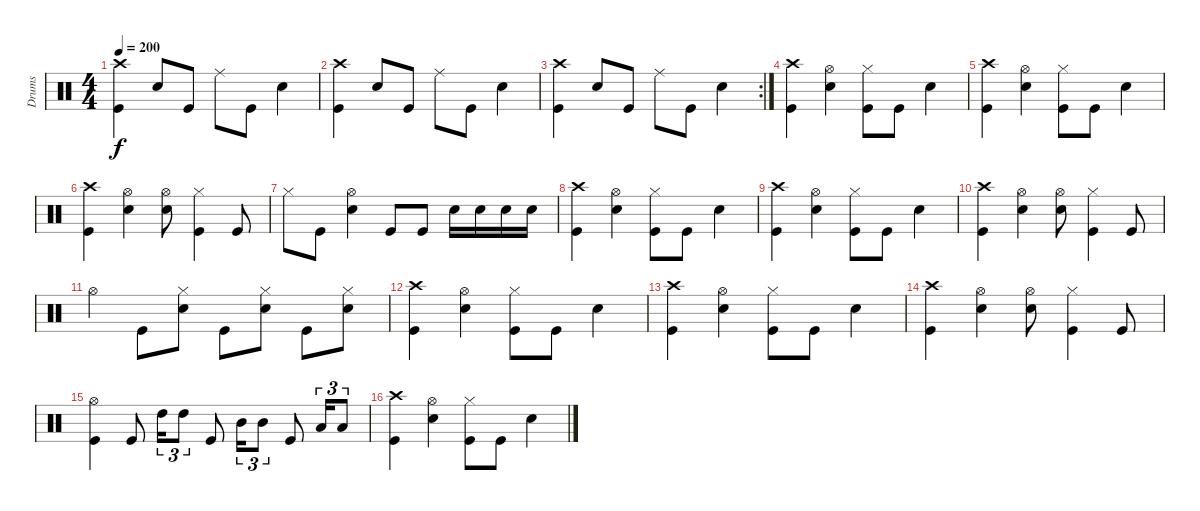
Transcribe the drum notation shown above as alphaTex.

\track ("Drums" "Drums") {instrument percussion}
\staff {score}
\articulation defaults
\ts (4 4)
\tempo 200
\clef neutral
\ks c
("Crash high (hit)" "Kick (hit)").4{dy f} "Snare (hit) 2".8 "Kick (hit)".8 "Ride (middle)".8 "Kick (hit)".8 "Snare (hit) 2".4 |
("Crash high (hit)" "Kick (hit)").4 "Snare (hit) 2".8 "Kick (hit)".8 "Ride (middle)".8 "Kick (hit)".8 "Snare (hit) 2".4 |
\rc 2
("Crash high (hit)" "Kick (hit)").4 "Snare (hit) 2".8 "Kick (hit)".8 "Ride (middle)".8 "Kick (hit)".8 "Snare (hit) 2".4 |
("Crash high (hit)" "Kick (hit)").4 ("Hi-Hat (open)" "Snare (hit) 2").4 ("Hi-Hat (closed)" "Kick (hit)").8 "Kick (hit)".8 "Snare (hit) 2".4 |
("Crash high (hit)" "Kick (hit)").4 ("Hi-Hat (open)" "Snare (hit) 2").4 ("Hi-Hat (closed)" "Kick (hit)").8 "Kick (hit)".8 "Snare (hit) 2".4 |
("Crash high (hit)" "Kick (hit)").4 ("Hi-Hat (open)" "Snare (hit) 2").4 ("Hi-Hat (open)" "Snare (hit) 2").8 ("Hi-Hat (closed)" "Kick (hit)").4 "Kick (hit)".8 |
"Hi-Hat (closed)".8 "Kick (hit)".8 ("Hi-Hat (open)" "Snare (hit) 2").4 "Kick (hit)".8 "Kick (hit)".8 "Snare (hit) 2".16 "Snare (hit) 2".16 "Snare (hit) 2".16 "Snare (hit) 2".16 |
("Crash high (hit)" "Kick (hit)").4 ("Hi-Hat (open)" "Snare (hit) 2").4 ("Hi-Hat (closed)" "Kick (hit)").8 "Kick (hit)".8 "Snare (hit) 2".4 |
("Crash high (hit)" "Kick (hit)").4 ("Hi-Hat (open)" "Snare (hit) 2").4 ("Hi-Hat (closed)" "Kick (hit)").8 "Kick (hit)".8 "Snare (hit) 2".4 |
("Crash high (hit)" "Kick (hit)").4 ("Hi-Hat (open)" "Snare (hit) 2").4 ("Hi-Hat (open)" "Snare (hit) 2").8 ("Hi-Hat (closed)" "Kick (hit)").4 "Kick (hit)".8 |
"Hi-Hat (open)".4 "Kick (hit)".8 ("Hi-Hat (closed)" "Snare (hit) 2").8 "Kick (hit)".8 ("Hi-Hat (closed)" "Snare (hit) 2").8 "Kick (hit)".8 ("Hi-Hat (closed)" "Snare (hit) 2").8 |
("Crash high (hit)" "Kick (hit)").4 ("Hi-Hat (open)" "Snare (hit) 2").4 ("Hi-Hat (closed)" "Kick (hit)").8 "Kick (hit)".8 "Snare (hit) 2".4 |
("Crash high (hit)" "Kick (hit)").4 ("Hi-Hat (open)" "Snare (hit) 2").4 ("Hi-Hat (closed)" "Kick (hit)").8 "Kick (hit)".8 "Snare (hit) 2".4 |
("Crash high (hit)" "Kick (hit)").4 ("Hi-Hat (open)" "Snare (hit) 2").4 ("Hi-Hat (open)" "Snare (hit) 2").8 ("Hi-Hat (closed)" "Kick (hit)").4 "Kick (hit)".8 |
("Hi-Hat (open)" "Kick (hit)").4 "Kick (hit)".8 "High Tom (hit)".16{tu (3 2)} "High Tom (hit)".8{tu (3 2)} "Kick (hit)".8 "Mid Tom (hit)".16{tu (3 2)} "Mid Tom (hit)".8{tu (3 2)} "Kick (hit)".8 "Low Tom (hit)".16{tu (3 2)} "Low Tom (hit)".8{tu (3 2)} |
("Crash high (hit)" "Kick (hit)").4 ("Hi-Hat (open)" "Snare (hit) 2").4 ("Hi-Hat (closed)" "Kick (hit)").8 "Kick (hit)".8 "Snare (hit) 2".4
